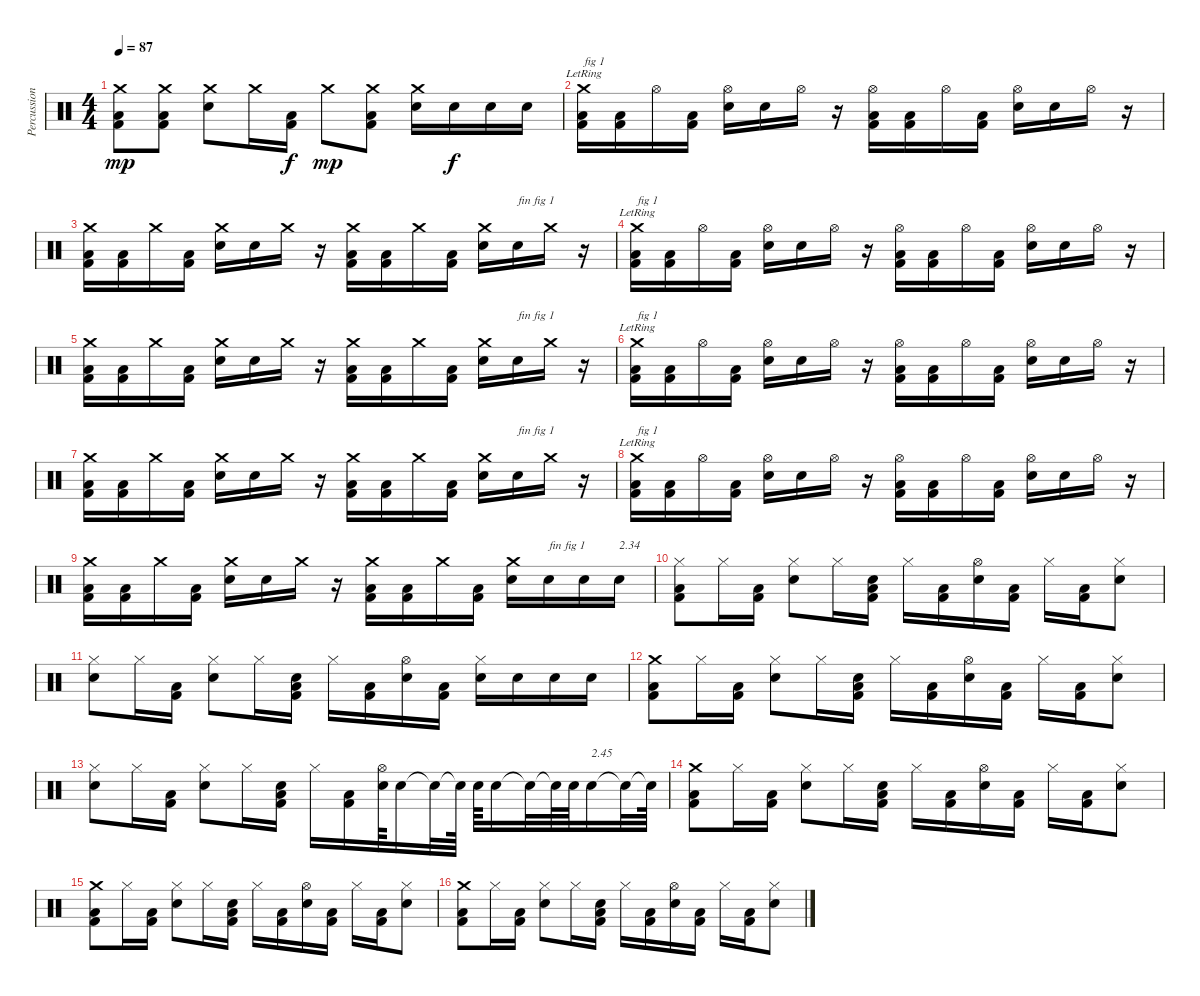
\track ("Percussions" "Percussion") {instrument percussion}
\staff {score}
\articulation defaults
\ts (4 4)
\tempo 87
\clef neutral
\ks c
("Kick (hit) 2" "Low Floor Tom (hit)" "Crash medium (hit)").8{dy mp} ("Kick (hit) 2" "Low Floor Tom (hit)" "Crash medium (hit)").8 ("Electric Snare (hit)" "Crash medium (hit)").8 "Crash medium (hit)".16 ("Kick (hit) 2" "Low Floor Tom (hit)").16{dy f} "Crash medium (hit)".8{dy mp} ("Kick (hit) 2" "Low Floor Tom (hit)" "Crash medium (hit)").8 ("Electric Snare (hit)" "Crash medium (hit)").16 "Electric Snare (hit)".16{dy f} "Electric Snare (hit)".16 "Electric Snare (hit)".16 |
("Kick (hit) 2" "Low Floor Tom (hit)" "Crash medium (hit)"{lr}).16{txt "fig 1"} ("Kick (hit) 2" "Low Floor Tom (hit)").16 "Hi-Hat (open)".16 ("Kick (hit) 2" "Low Floor Tom (hit)").16 ("Electric Snare (hit)" "Hi-Hat (open)").16 "Electric Snare (hit)".16 "Hi-Hat (open)".16 r.16 ("Kick (hit) 2" "Low Floor Tom (hit)" "Hi-Hat (open)").16 ("Kick (hit) 2" "Low Floor Tom (hit)").16 "Hi-Hat (open)".16 ("Kick (hit) 2" "Low Floor Tom (hit)").16 ("Electric Snare (hit)" "Hi-Hat (open)").16 "Electric Snare (hit)".16 "Hi-Hat (open)".16 r.16 |
("Kick (hit) 2" "Low Floor Tom (hit)" "Crash medium (hit)").16 ("Kick (hit) 2" "Low Floor Tom (hit)").16 "Crash medium (hit)".16 ("Kick (hit) 2" "Low Floor Tom (hit)").16 ("Electric Snare (hit)" "Crash medium (hit)").16 "Electric Snare (hit)".16 "Crash medium (hit)".16 r.16 ("Kick (hit) 2" "Low Floor Tom (hit)" "Crash medium (hit)").16 ("Kick (hit) 2" "Low Floor Tom (hit)").16 "Crash medium (hit)".16 ("Kick (hit) 2" "Low Floor Tom (hit)").16 ("Electric Snare (hit)" "Crash medium (hit)").16 "Electric Snare (hit)".16{txt "fin fig 1"} "Crash medium (hit)".16 r.16 |
("Kick (hit) 2" "Low Floor Tom (hit)" "Crash medium (hit)"{lr}).16{txt "fig 1"} ("Kick (hit) 2" "Low Floor Tom (hit)").16 "Hi-Hat (open)".16 ("Kick (hit) 2" "Low Floor Tom (hit)").16 ("Electric Snare (hit)" "Hi-Hat (open)").16 "Electric Snare (hit)".16 "Hi-Hat (open)".16 r.16 ("Kick (hit) 2" "Low Floor Tom (hit)" "Hi-Hat (open)").16 ("Kick (hit) 2" "Low Floor Tom (hit)").16 "Hi-Hat (open)".16 ("Kick (hit) 2" "Low Floor Tom (hit)").16 ("Electric Snare (hit)" "Hi-Hat (open)").16 "Electric Snare (hit)".16 "Hi-Hat (open)".16 r.16 |
("Kick (hit) 2" "Low Floor Tom (hit)" "Crash medium (hit)").16 ("Kick (hit) 2" "Low Floor Tom (hit)").16 "Crash medium (hit)".16 ("Kick (hit) 2" "Low Floor Tom (hit)").16 ("Electric Snare (hit)" "Crash medium (hit)").16 "Electric Snare (hit)".16 "Crash medium (hit)".16 r.16 ("Kick (hit) 2" "Low Floor Tom (hit)" "Crash medium (hit)").16 ("Kick (hit) 2" "Low Floor Tom (hit)").16 "Crash medium (hit)".16 ("Kick (hit) 2" "Low Floor Tom (hit)").16 ("Electric Snare (hit)" "Crash medium (hit)").16 "Electric Snare (hit)".16{txt "fin fig 1"} "Crash medium (hit)".16 r.16 |
("Kick (hit) 2" "Low Floor Tom (hit)" "Crash medium (hit)"{lr}).16{txt "fig 1"} ("Kick (hit) 2" "Low Floor Tom (hit)").16 "Hi-Hat (open)".16 ("Kick (hit) 2" "Low Floor Tom (hit)").16 ("Electric Snare (hit)" "Hi-Hat (open)").16 "Electric Snare (hit)".16 "Hi-Hat (open)".16 r.16 ("Kick (hit) 2" "Low Floor Tom (hit)" "Hi-Hat (open)").16 ("Kick (hit) 2" "Low Floor Tom (hit)").16 "Hi-Hat (open)".16 ("Kick (hit) 2" "Low Floor Tom (hit)").16 ("Electric Snare (hit)" "Hi-Hat (open)").16 "Electric Snare (hit)".16 "Hi-Hat (open)".16 r.16 |
("Kick (hit) 2" "Low Floor Tom (hit)" "Crash medium (hit)").16 ("Kick (hit) 2" "Low Floor Tom (hit)").16 "Crash medium (hit)".16 ("Kick (hit) 2" "Low Floor Tom (hit)").16 ("Electric Snare (hit)" "Crash medium (hit)").16 "Electric Snare (hit)".16 "Crash medium (hit)".16 r.16 ("Kick (hit) 2" "Low Floor Tom (hit)" "Crash medium (hit)").16 ("Kick (hit) 2" "Low Floor Tom (hit)").16 "Crash medium (hit)".16 ("Kick (hit) 2" "Low Floor Tom (hit)").16 ("Electric Snare (hit)" "Crash medium (hit)").16 "Electric Snare (hit)".16{txt "fin fig 1"} "Crash medium (hit)".16 r.16 |
("Kick (hit) 2" "Low Floor Tom (hit)" "Crash medium (hit)"{lr}).16{txt "fig 1"} ("Kick (hit) 2" "Low Floor Tom (hit)").16 "Hi-Hat (open)".16 ("Kick (hit) 2" "Low Floor Tom (hit)").16 ("Electric Snare (hit)" "Hi-Hat (open)").16 "Electric Snare (hit)".16 "Hi-Hat (open)".16 r.16 ("Kick (hit) 2" "Low Floor Tom (hit)" "Hi-Hat (open)").16 ("Kick (hit) 2" "Low Floor Tom (hit)").16 "Hi-Hat (open)".16 ("Kick (hit) 2" "Low Floor Tom (hit)").16 ("Electric Snare (hit)" "Hi-Hat (open)").16 "Electric Snare (hit)".16 "Hi-Hat (open)".16 r.16 |
("Kick (hit) 2" "Low Floor Tom (hit)" "Crash medium (hit)").16 ("Kick (hit) 2" "Low Floor Tom (hit)").16 "Crash medium (hit)".16 ("Kick (hit) 2" "Low Floor Tom (hit)").16 ("Electric Snare (hit)" "Crash medium (hit)").16 "Electric Snare (hit)".16 "Crash medium (hit)".16 r.16 ("Kick (hit) 2" "Low Floor Tom (hit)" "Crash medium (hit)").16 ("Kick (hit) 2" "Low Floor Tom (hit)").16 "Crash medium (hit)".16 ("Kick (hit) 2" "Low Floor Tom (hit)").16 ("Electric Snare (hit)" "Crash medium (hit)").16 "Electric Snare (hit)".16{txt "fin fig 1"} "Electric Snare (hit)".16 "Electric Snare (hit)".16{txt "2.34"} |
("Kick (hit) 2" "Low Floor Tom (hit)" "Hi-Hat (closed)").8 "Hi-Hat (closed)".16 ("Kick (hit) 2" "Low Floor Tom (hit)").16 ("Electric Snare (hit)" "Hi-Hat (closed)").8 "Hi-Hat (closed)".16 ("Kick (hit) 2" "Low Floor Tom (hit)" "Electric Snare (hit)").16 "Hi-Hat (closed)".16 ("Kick (hit) 2" "Low Floor Tom (hit)").16 ("Electric Snare (hit)" "Hi-Hat (open)").16 ("Kick (hit) 2" "Low Floor Tom (hit)").16 "Hi-Hat (closed)".16 ("Kick (hit) 2" "Low Floor Tom (hit)").16 ("Electric Snare (hit)" "Hi-Hat (closed)").8 |
("Electric Snare (hit)" "Hi-Hat (closed)").8 "Hi-Hat (closed)".16 ("Kick (hit) 2" "Low Floor Tom (hit)").16 ("Electric Snare (hit)" "Hi-Hat (closed)").8 "Hi-Hat (closed)".16 ("Kick (hit) 2" "Low Floor Tom (hit)" "Electric Snare (hit)").16 "Hi-Hat (closed)".16 ("Kick (hit) 2" "Low Floor Tom (hit)").16 ("Electric Snare (hit)" "Hi-Hat (open)").16 ("Kick (hit) 2" "Low Floor Tom (hit)").16 ("Electric Snare (hit)" "Hi-Hat (closed)").16 "Electric Snare (hit)".16 "Electric Snare (hit)".16 "Electric Snare (hit)".16 |
("Kick (hit) 2" "Low Floor Tom (hit)" "Crash medium (hit)").8 "Hi-Hat (closed)".16 ("Kick (hit) 2" "Low Floor Tom (hit)").16 ("Electric Snare (hit)" "Hi-Hat (closed)").8 "Hi-Hat (closed)".16 ("Kick (hit) 2" "Low Floor Tom (hit)" "Electric Snare (hit)").16 "Hi-Hat (closed)".16 ("Kick (hit) 2" "Low Floor Tom (hit)").16 ("Electric Snare (hit)" "Hi-Hat (open)").16 ("Kick (hit) 2" "Low Floor Tom (hit)").16 "Hi-Hat (closed)".16 ("Kick (hit) 2" "Low Floor Tom (hit)").16 ("Electric Snare (hit)" "Hi-Hat (closed)").8 |
("Electric Snare (hit)" "Hi-Hat (closed)").8 "Hi-Hat (closed)".16 ("Kick (hit) 2" "Low Floor Tom (hit)").16 ("Electric Snare (hit)" "Hi-Hat (closed)").8 "Hi-Hat (closed)".16 ("Kick (hit) 2" "Low Floor Tom (hit)" "Electric Snare (hit)").16 "Hi-Hat (closed)".16 ("Kick (hit) 2" "Low Floor Tom (hit)").16 ("Electric Snare (hit)" "Hi-Hat (open)").64 "Electric Snare (hit)".16 "Snare (hit)"{t}.32 "Snare (hit)"{t}.64 "Electric Snare (hit)".64 "Electric Snare (hit)".16 "Snare (hit)"{t}.32 "Snare (hit)"{t}.64 "Electric Snare (hit)".64 "Electric Snare (hit)".16{txt "2.45"} "Snare (hit)"{t}.32 "Snare (hit)"{t}.64 |
("Kick (hit) 2" "Low Floor Tom (hit)" "Crash medium (hit)").8 "Hi-Hat (closed)".16 ("Kick (hit) 2" "Low Floor Tom (hit)").16 ("Electric Snare (hit)" "Hi-Hat (closed)").8 "Hi-Hat (closed)".16 ("Kick (hit) 2" "Low Floor Tom (hit)" "Electric Snare (hit)").16 "Hi-Hat (closed)".16 ("Kick (hit) 2" "Low Floor Tom (hit)").16 ("Electric Snare (hit)" "Hi-Hat (open)").16 ("Kick (hit) 2" "Low Floor Tom (hit)").16 "Hi-Hat (closed)".16 ("Kick (hit) 2" "Low Floor Tom (hit)").16 ("Electric Snare (hit)" "Hi-Hat (closed)").8 |
("Kick (hit) 2" "Low Floor Tom (hit)" "Crash medium (hit)").8 "Hi-Hat (closed)".16 ("Kick (hit) 2" "Low Floor Tom (hit)").16 ("Electric Snare (hit)" "Hi-Hat (closed)").8 "Hi-Hat (closed)".16 ("Kick (hit) 2" "Low Floor Tom (hit)" "Electric Snare (hit)").16 "Hi-Hat (closed)".16 ("Kick (hit) 2" "Low Floor Tom (hit)").16 ("Electric Snare (hit)" "Hi-Hat (open)").16 ("Kick (hit) 2" "Low Floor Tom (hit)").16 "Hi-Hat (closed)".16 ("Kick (hit) 2" "Low Floor Tom (hit)").16 ("Electric Snare (hit)" "Hi-Hat (closed)").8 |
("Kick (hit) 2" "Low Floor Tom (hit)" "Crash medium (hit)").8 "Hi-Hat (closed)".16 ("Kick (hit) 2" "Low Floor Tom (hit)").16 ("Electric Snare (hit)" "Hi-Hat (closed)").8 "Hi-Hat (closed)".16 ("Kick (hit) 2" "Low Floor Tom (hit)" "Electric Snare (hit)").16 "Hi-Hat (closed)".16 ("Kick (hit) 2" "Low Floor Tom (hit)").16 ("Electric Snare (hit)" "Hi-Hat (open)").16 ("Kick (hit) 2" "Low Floor Tom (hit)").16 "Hi-Hat (closed)".16 ("Kick (hit) 2" "Low Floor Tom (hit)").16 ("Electric Snare (hit)" "Hi-Hat (closed)").8
